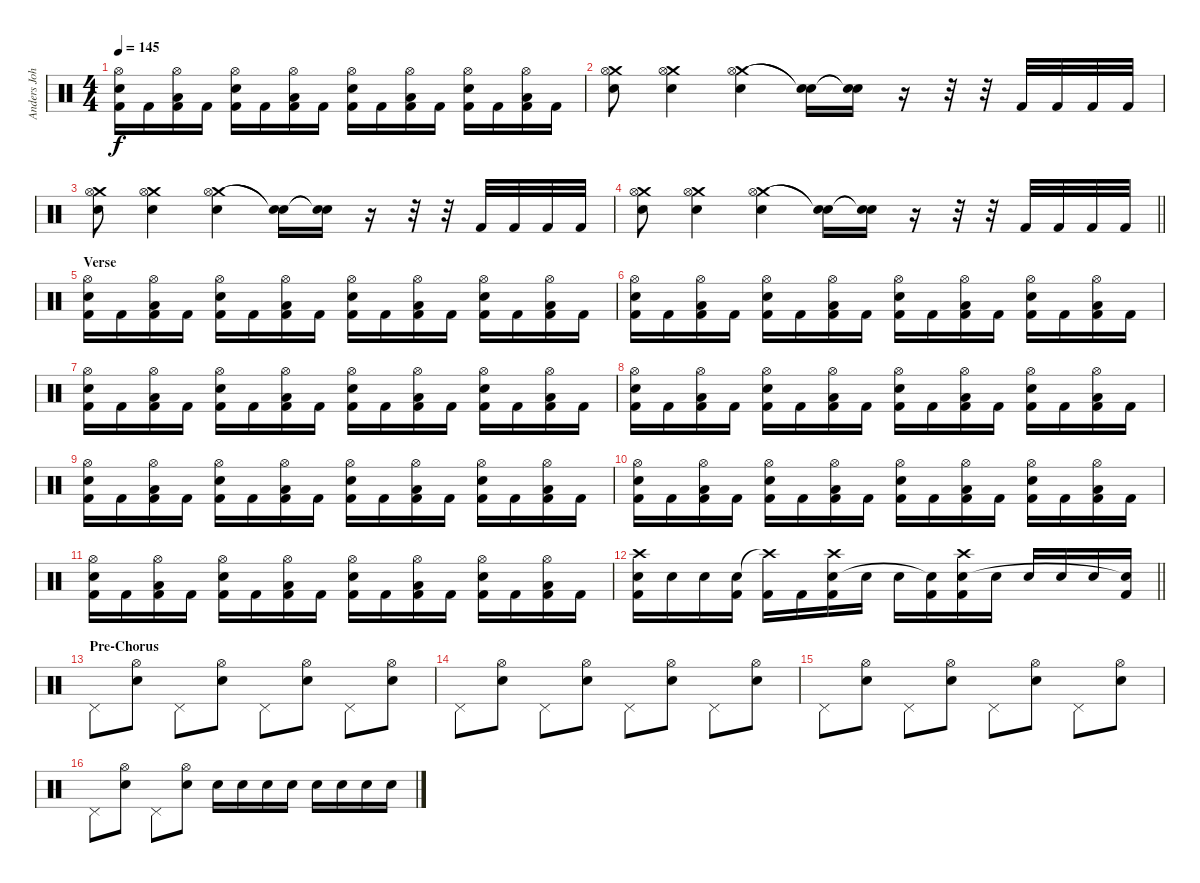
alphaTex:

\track ("Anders Johansson (Drums)" "Anders Joh") {instrument percussion}
\staff {score}
\articulation defaults
\ts (4 4)
\tempo 145
\clef neutral
\ks c
("Kick (hit) 2" "Electric Snare (hit)" "Hi-Hat (open)").16{dy f} "Kick (hit) 2".16 ("Kick (hit) 2" "Low Tom (hit)" "Hi-Hat (open)").16 "Kick (hit) 2".16 ("Kick (hit) 2" "Electric Snare (hit)" "Hi-Hat (open)").16 "Kick (hit) 2".16 ("Kick (hit) 2" "Low Tom (hit)" "Hi-Hat (open)").16 "Kick (hit) 2".16 ("Kick (hit) 2" "Electric Snare (hit)" "Hi-Hat (open)").16 "Kick (hit) 2".16 ("Kick (hit) 2" "Low Tom (hit)" "Hi-Hat (open)").16 "Kick (hit) 2".16 ("Kick (hit) 2" "Electric Snare (hit)" "Hi-Hat (open)").16 "Kick (hit) 2".16 ("Kick (hit) 2" "Low Tom (hit)" "Hi-Hat (open)").16 "Kick (hit) 2".16 |
("Crash medium (hit)" "Hi-Hat (open)" "Snare (hit) 2").8 ("Crash medium (hit)" "Hi-Hat (open)" "Snare (hit) 2").4 ("Crash medium (hit)" "Hi-Hat (open)" "Snare (hit) 2").4 ("Snare (hit)"{t} "Snare (hit)"{t}).16 ("Snare (hit)"{t} "Snare (hit)"{t}).16 r.16 r.32 r.32 "Kick (hit) 2".32 "Kick (hit) 2".32 "Kick (hit) 2".32 "Kick (hit) 2".32 |
("Crash medium (hit)" "Hi-Hat (open)" "Snare (hit) 2").8 ("Crash medium (hit)" "Hi-Hat (open)" "Snare (hit) 2").4 ("Crash medium (hit)" "Hi-Hat (open)" "Snare (hit) 2").4 ("Snare (hit)"{t} "Snare (hit)"{t}).16 ("Snare (hit)"{t} "Snare (hit)"{t}).16 r.16 r.32 r.32 "Kick (hit) 2".32 "Kick (hit) 2".32 "Kick (hit) 2".32 "Kick (hit) 2".32 |
\barLineRight lightlight
("Crash medium (hit)" "Hi-Hat (open)" "Snare (hit) 2").8 ("Crash medium (hit)" "Hi-Hat (open)" "Snare (hit) 2").4 ("Crash medium (hit)" "Hi-Hat (open)" "Snare (hit) 2").4 ("Snare (hit)"{t} "Snare (hit)"{t}).16 ("Snare (hit)"{t} "Snare (hit)"{t}).16 r.16 r.32 r.32 "Kick (hit) 2".32 "Kick (hit) 2".32 "Kick (hit) 2".32 "Kick (hit) 2".32 |
\section ("" "Verse")
("Kick (hit) 2" "Electric Snare (hit)" "Hi-Hat (open)").16 "Kick (hit) 2".16 ("Kick (hit) 2" "Low Tom (hit)" "Hi-Hat (open)").16 "Kick (hit) 2".16 ("Kick (hit) 2" "Electric Snare (hit)" "Hi-Hat (open)").16 "Kick (hit) 2".16 ("Kick (hit) 2" "Low Tom (hit)" "Hi-Hat (open)").16 "Kick (hit) 2".16 ("Kick (hit) 2" "Electric Snare (hit)" "Hi-Hat (open)").16 "Kick (hit) 2".16 ("Kick (hit) 2" "Low Tom (hit)" "Hi-Hat (open)").16 "Kick (hit) 2".16 ("Kick (hit) 2" "Electric Snare (hit)" "Hi-Hat (open)").16 "Kick (hit) 2".16 ("Kick (hit) 2" "Low Tom (hit)" "Hi-Hat (open)").16 "Kick (hit) 2".16 |
("Kick (hit) 2" "Electric Snare (hit)" "Hi-Hat (open)").16 "Kick (hit) 2".16 ("Kick (hit) 2" "Low Tom (hit)" "Hi-Hat (open)").16 "Kick (hit) 2".16 ("Kick (hit) 2" "Electric Snare (hit)" "Hi-Hat (open)").16 "Kick (hit) 2".16 ("Kick (hit) 2" "Low Tom (hit)" "Hi-Hat (open)").16 "Kick (hit) 2".16 ("Kick (hit) 2" "Electric Snare (hit)" "Hi-Hat (open)").16 "Kick (hit) 2".16 ("Kick (hit) 2" "Low Tom (hit)" "Hi-Hat (open)").16 "Kick (hit) 2".16 ("Kick (hit) 2" "Electric Snare (hit)" "Hi-Hat (open)").16 "Kick (hit) 2".16 ("Kick (hit) 2" "Low Tom (hit)" "Hi-Hat (open)").16 "Kick (hit) 2".16 |
("Kick (hit) 2" "Electric Snare (hit)" "Hi-Hat (open)").16 "Kick (hit) 2".16 ("Kick (hit) 2" "Low Tom (hit)" "Hi-Hat (open)").16 "Kick (hit) 2".16 ("Kick (hit) 2" "Electric Snare (hit)" "Hi-Hat (open)").16 "Kick (hit) 2".16 ("Kick (hit) 2" "Low Tom (hit)" "Hi-Hat (open)").16 "Kick (hit) 2".16 ("Kick (hit) 2" "Electric Snare (hit)" "Hi-Hat (open)").16 "Kick (hit) 2".16 ("Kick (hit) 2" "Low Tom (hit)" "Hi-Hat (open)").16 "Kick (hit) 2".16 ("Kick (hit) 2" "Electric Snare (hit)" "Hi-Hat (open)").16 "Kick (hit) 2".16 ("Kick (hit) 2" "Low Tom (hit)" "Hi-Hat (open)").16 "Kick (hit) 2".16 |
("Kick (hit) 2" "Electric Snare (hit)" "Hi-Hat (open)").16 "Kick (hit) 2".16 ("Kick (hit) 2" "Low Tom (hit)" "Hi-Hat (open)").16 "Kick (hit) 2".16 ("Kick (hit) 2" "Electric Snare (hit)" "Hi-Hat (open)").16 "Kick (hit) 2".16 ("Kick (hit) 2" "Low Tom (hit)" "Hi-Hat (open)").16 "Kick (hit) 2".16 ("Kick (hit) 2" "Electric Snare (hit)" "Hi-Hat (open)").16 "Kick (hit) 2".16 ("Kick (hit) 2" "Low Tom (hit)" "Hi-Hat (open)").16 "Kick (hit) 2".16 ("Kick (hit) 2" "Electric Snare (hit)" "Hi-Hat (open)").16 "Kick (hit) 2".16 ("Kick (hit) 2" "Low Tom (hit)" "Hi-Hat (open)").16 "Kick (hit) 2".16 |
("Kick (hit) 2" "Electric Snare (hit)" "Hi-Hat (open)").16 "Kick (hit) 2".16 ("Kick (hit) 2" "Low Tom (hit)" "Hi-Hat (open)").16 "Kick (hit) 2".16 ("Kick (hit) 2" "Electric Snare (hit)" "Hi-Hat (open)").16 "Kick (hit) 2".16 ("Kick (hit) 2" "Low Tom (hit)" "Hi-Hat (open)").16 "Kick (hit) 2".16 ("Kick (hit) 2" "Electric Snare (hit)" "Hi-Hat (open)").16 "Kick (hit) 2".16 ("Kick (hit) 2" "Low Tom (hit)" "Hi-Hat (open)").16 "Kick (hit) 2".16 ("Kick (hit) 2" "Electric Snare (hit)" "Hi-Hat (open)").16 "Kick (hit) 2".16 ("Kick (hit) 2" "Low Tom (hit)" "Hi-Hat (open)").16 "Kick (hit) 2".16 |
("Kick (hit) 2" "Electric Snare (hit)" "Hi-Hat (open)").16 "Kick (hit) 2".16 ("Kick (hit) 2" "Low Tom (hit)" "Hi-Hat (open)").16 "Kick (hit) 2".16 ("Kick (hit) 2" "Electric Snare (hit)" "Hi-Hat (open)").16 "Kick (hit) 2".16 ("Kick (hit) 2" "Low Tom (hit)" "Hi-Hat (open)").16 "Kick (hit) 2".16 ("Kick (hit) 2" "Electric Snare (hit)" "Hi-Hat (open)").16 "Kick (hit) 2".16 ("Kick (hit) 2" "Low Tom (hit)" "Hi-Hat (open)").16 "Kick (hit) 2".16 ("Kick (hit) 2" "Electric Snare (hit)" "Hi-Hat (open)").16 "Kick (hit) 2".16 ("Kick (hit) 2" "Low Tom (hit)" "Hi-Hat (open)").16 "Kick (hit) 2".16 |
("Kick (hit) 2" "Electric Snare (hit)" "Hi-Hat (open)").16 "Kick (hit) 2".16 ("Kick (hit) 2" "Low Tom (hit)" "Hi-Hat (open)").16 "Kick (hit) 2".16 ("Kick (hit) 2" "Electric Snare (hit)" "Hi-Hat (open)").16 "Kick (hit) 2".16 ("Kick (hit) 2" "Low Tom (hit)" "Hi-Hat (open)").16 "Kick (hit) 2".16 ("Kick (hit) 2" "Electric Snare (hit)" "Hi-Hat (open)").16 "Kick (hit) 2".16 ("Kick (hit) 2" "Low Tom (hit)" "Hi-Hat (open)").16 "Kick (hit) 2".16 ("Kick (hit) 2" "Electric Snare (hit)" "Hi-Hat (open)").16 "Kick (hit) 2".16 ("Kick (hit) 2" "Low Tom (hit)" "Hi-Hat (open)").16 "Kick (hit) 2".16 |
\barLineRight lightlight
("Kick (hit) 2" "Snare (hit) 2" "Crash high (hit)").16 "Snare (hit) 2".16 "Snare (hit) 2".16 ("Kick (hit) 2" "Snare (hit) 2").16 ("Kick (hit) 2" "Crash high (hit)"{t}).16 "Kick (hit) 2".16 ("Kick (hit) 2" "Snare (hit) 2" "Crash high (hit)").16 "Snare (hit) 2".16 "Snare (hit) 2".16 ("Kick (hit) 2" "Snare (hit)"{t}).16 ("Kick (hit) 2" "Snare (hit) 2" "Crash high (hit)").16 "Snare (hit) 2".16 "Snare (hit) 2".16 "Snare (hit) 2".16 "Snare (hit) 2".16 ("Kick (hit) 2" "Snare (hit)"{t}).16 |
\section ("" "Pre-Chorus")
"Pedal Hi-Hat (hit)".8 ("Hi-Hat (open)" "Electric Snare (hit)").8 "Pedal Hi-Hat (hit)".8 ("Hi-Hat (open)" "Electric Snare (hit)").8 "Pedal Hi-Hat (hit)".8 ("Hi-Hat (open)" "Electric Snare (hit)").8 "Pedal Hi-Hat (hit)".8 ("Hi-Hat (open)" "Electric Snare (hit)").8 |
"Pedal Hi-Hat (hit)".8 ("Hi-Hat (open)" "Electric Snare (hit)").8 "Pedal Hi-Hat (hit)".8 ("Hi-Hat (open)" "Electric Snare (hit)").8 "Pedal Hi-Hat (hit)".8 ("Hi-Hat (open)" "Electric Snare (hit)").8 "Pedal Hi-Hat (hit)".8 ("Hi-Hat (open)" "Electric Snare (hit)").8 |
"Pedal Hi-Hat (hit)".8 ("Hi-Hat (open)" "Electric Snare (hit)").8 "Pedal Hi-Hat (hit)".8 ("Hi-Hat (open)" "Electric Snare (hit)").8 "Pedal Hi-Hat (hit)".8 ("Hi-Hat (open)" "Electric Snare (hit)").8 "Pedal Hi-Hat (hit)".8 ("Hi-Hat (open)" "Electric Snare (hit)").8 |
"Pedal Hi-Hat (hit)".8 ("Electric Snare (hit)" "Hi-Hat (open)").8 "Pedal Hi-Hat (hit)".8 ("Electric Snare (hit)" "Hi-Hat (open)").8 "Snare (hit) 2".16 "Snare (hit) 2".16 "Snare (hit) 2".16 "Snare (hit) 2".16 "Electric Snare (hit)".16 "Electric Snare (hit)".16 "Electric Snare (hit)".16 "Electric Snare (hit)".16
